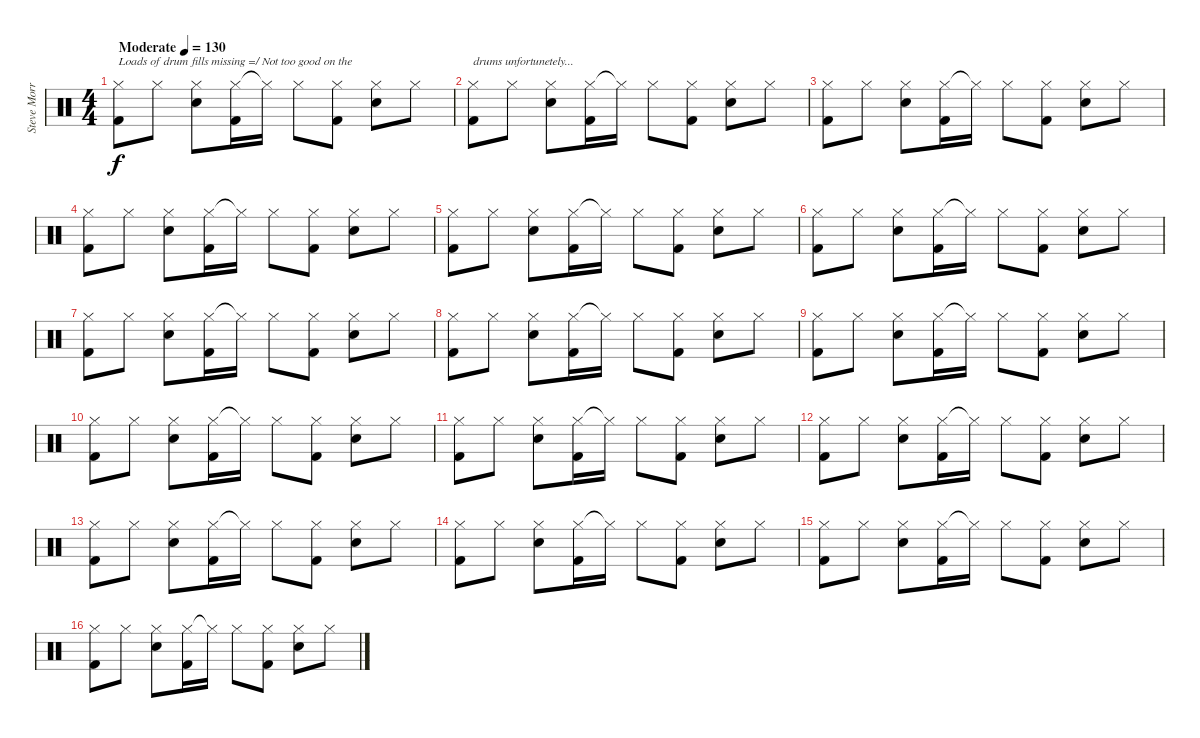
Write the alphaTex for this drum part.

\track ("Steve Morris" "Steve Morr") {instrument percussion}
\staff {score}
\articulation defaults
\ts (4 4)
\tempo (130 "Moderate")
\clef neutral
\ks c
("Hi-Hat (closed)" "Kick (hit) 2").8{txt "Loads of drum fills missing =/ Not too good on the" dy f} "Hi-Hat (closed)".8 ("Hi-Hat (closed)" "Electric Snare (hit)").8 ("Hi-Hat (closed)" "Kick (hit) 2").16 "Hi-Hat (closed)"{t}.16 "Hi-Hat (closed)".8 ("Hi-Hat (closed)" "Kick (hit) 2").8 ("Hi-Hat (closed)" "Electric Snare (hit)").8 "Hi-Hat (closed)".8 |
("Hi-Hat (closed)" "Kick (hit) 2").8{txt "drums unfortunetely..."} "Hi-Hat (closed)".8 ("Hi-Hat (closed)" "Electric Snare (hit)").8 ("Hi-Hat (closed)" "Kick (hit) 2").16 "Hi-Hat (closed)"{t}.16 "Hi-Hat (closed)".8 ("Hi-Hat (closed)" "Kick (hit) 2").8 ("Hi-Hat (closed)" "Electric Snare (hit)").8 "Hi-Hat (closed)".8 |
("Hi-Hat (closed)" "Kick (hit) 2").8 "Hi-Hat (closed)".8 ("Hi-Hat (closed)" "Electric Snare (hit)").8 ("Hi-Hat (closed)" "Kick (hit) 2").16 "Hi-Hat (closed)"{t}.16 "Hi-Hat (closed)".8 ("Hi-Hat (closed)" "Kick (hit) 2").8 ("Hi-Hat (closed)" "Electric Snare (hit)").8 "Hi-Hat (closed)".8 |
("Hi-Hat (closed)" "Kick (hit) 2").8 "Hi-Hat (closed)".8 ("Hi-Hat (closed)" "Electric Snare (hit)").8 ("Hi-Hat (closed)" "Kick (hit) 2").16 "Hi-Hat (closed)"{t}.16 "Hi-Hat (closed)".8 ("Hi-Hat (closed)" "Kick (hit) 2").8 ("Hi-Hat (closed)" "Electric Snare (hit)").8 "Hi-Hat (closed)".8 |
("Hi-Hat (closed)" "Kick (hit) 2").8 "Hi-Hat (closed)".8 ("Hi-Hat (closed)" "Electric Snare (hit)").8 ("Hi-Hat (closed)" "Kick (hit) 2").16 "Hi-Hat (closed)"{t}.16 "Hi-Hat (closed)".8 ("Hi-Hat (closed)" "Kick (hit) 2").8 ("Hi-Hat (closed)" "Electric Snare (hit)").8 "Hi-Hat (closed)".8 |
("Hi-Hat (closed)" "Kick (hit) 2").8 "Hi-Hat (closed)".8 ("Hi-Hat (closed)" "Electric Snare (hit)").8 ("Hi-Hat (closed)" "Kick (hit) 2").16 "Hi-Hat (closed)"{t}.16 "Hi-Hat (closed)".8 ("Hi-Hat (closed)" "Kick (hit) 2").8 ("Hi-Hat (closed)" "Electric Snare (hit)").8 "Hi-Hat (closed)".8 |
("Hi-Hat (closed)" "Kick (hit) 2").8 "Hi-Hat (closed)".8 ("Hi-Hat (closed)" "Electric Snare (hit)").8 ("Hi-Hat (closed)" "Kick (hit) 2").16 "Hi-Hat (closed)"{t}.16 "Hi-Hat (closed)".8 ("Hi-Hat (closed)" "Kick (hit) 2").8 ("Hi-Hat (closed)" "Electric Snare (hit)").8 "Hi-Hat (closed)".8 |
("Hi-Hat (closed)" "Kick (hit) 2").8 "Hi-Hat (closed)".8 ("Hi-Hat (closed)" "Electric Snare (hit)").8 ("Hi-Hat (closed)" "Kick (hit) 2").16 "Hi-Hat (closed)"{t}.16 "Hi-Hat (closed)".8 ("Hi-Hat (closed)" "Kick (hit) 2").8 ("Hi-Hat (closed)" "Electric Snare (hit)").8 "Hi-Hat (closed)".8 |
("Hi-Hat (closed)" "Kick (hit) 2").8 "Hi-Hat (closed)".8 ("Hi-Hat (closed)" "Electric Snare (hit)").8 ("Hi-Hat (closed)" "Kick (hit) 2").16 "Hi-Hat (closed)"{t}.16 "Hi-Hat (closed)".8 ("Hi-Hat (closed)" "Kick (hit) 2").8 ("Hi-Hat (closed)" "Electric Snare (hit)").8 "Hi-Hat (closed)".8 |
("Hi-Hat (closed)" "Kick (hit) 2").8 "Hi-Hat (closed)".8 ("Hi-Hat (closed)" "Electric Snare (hit)").8 ("Hi-Hat (closed)" "Kick (hit) 2").16 "Hi-Hat (closed)"{t}.16 "Hi-Hat (closed)".8 ("Hi-Hat (closed)" "Kick (hit) 2").8 ("Hi-Hat (closed)" "Electric Snare (hit)").8 "Hi-Hat (closed)".8 |
("Hi-Hat (closed)" "Kick (hit) 2").8 "Hi-Hat (closed)".8 ("Hi-Hat (closed)" "Electric Snare (hit)").8 ("Hi-Hat (closed)" "Kick (hit) 2").16 "Hi-Hat (closed)"{t}.16 "Hi-Hat (closed)".8 ("Hi-Hat (closed)" "Kick (hit) 2").8 ("Hi-Hat (closed)" "Electric Snare (hit)").8 "Hi-Hat (closed)".8 |
("Hi-Hat (closed)" "Kick (hit) 2").8 "Hi-Hat (closed)".8 ("Hi-Hat (closed)" "Electric Snare (hit)").8 ("Hi-Hat (closed)" "Kick (hit) 2").16 "Hi-Hat (closed)"{t}.16 "Hi-Hat (closed)".8 ("Hi-Hat (closed)" "Kick (hit) 2").8 ("Hi-Hat (closed)" "Electric Snare (hit)").8 "Hi-Hat (closed)".8 |
("Hi-Hat (closed)" "Kick (hit) 2").8 "Hi-Hat (closed)".8 ("Hi-Hat (closed)" "Electric Snare (hit)").8 ("Hi-Hat (closed)" "Kick (hit) 2").16 "Hi-Hat (closed)"{t}.16 "Hi-Hat (closed)".8 ("Hi-Hat (closed)" "Kick (hit) 2").8 ("Hi-Hat (closed)" "Electric Snare (hit)").8 "Hi-Hat (closed)".8 |
("Hi-Hat (closed)" "Kick (hit) 2").8 "Hi-Hat (closed)".8 ("Hi-Hat (closed)" "Electric Snare (hit)").8 ("Hi-Hat (closed)" "Kick (hit) 2").16 "Hi-Hat (closed)"{t}.16 "Hi-Hat (closed)".8 ("Hi-Hat (closed)" "Kick (hit) 2").8 ("Hi-Hat (closed)" "Electric Snare (hit)").8 "Hi-Hat (closed)".8 |
("Hi-Hat (closed)" "Kick (hit) 2").8 "Hi-Hat (closed)".8 ("Hi-Hat (closed)" "Electric Snare (hit)").8 ("Hi-Hat (closed)" "Kick (hit) 2").16 "Hi-Hat (closed)"{t}.16 "Hi-Hat (closed)".8 ("Hi-Hat (closed)" "Kick (hit) 2").8 ("Hi-Hat (closed)" "Electric Snare (hit)").8 "Hi-Hat (closed)".8 |
("Hi-Hat (closed)" "Kick (hit) 2").8 "Hi-Hat (closed)".8 ("Hi-Hat (closed)" "Electric Snare (hit)").8 ("Hi-Hat (closed)" "Kick (hit) 2").16 "Hi-Hat (closed)"{t}.16 "Hi-Hat (closed)".8 ("Hi-Hat (closed)" "Kick (hit) 2").8 ("Hi-Hat (closed)" "Electric Snare (hit)").8 "Hi-Hat (closed)".8
